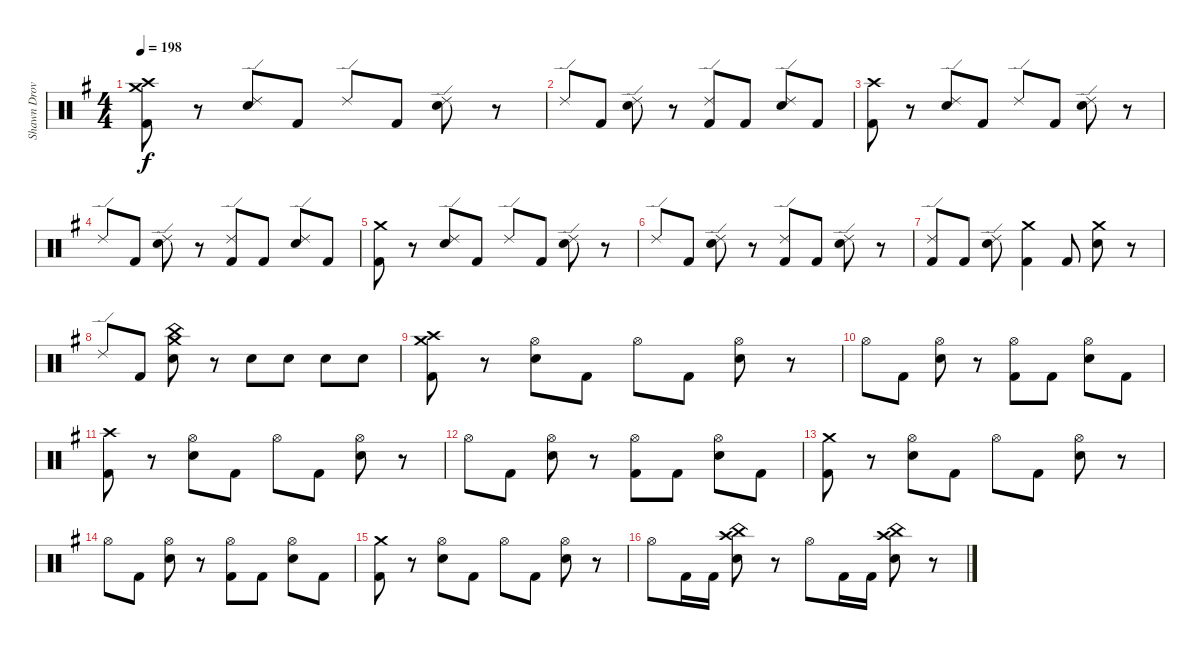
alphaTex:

\track ("Shawn Drover" "Shawn Drov") {instrument percussion}
\staff {score}
\articulation defaults
\ts (4 4)
\tempo 198
\clef neutral
\ks g
("Crash medium (hit)" "Crash high (hit)" "Kick (hit) 2").8{dy f} r.8 ("Ride (edge) 2" "Snare (hit) 2").8 "Kick (hit) 2".8 "Ride (edge) 2".8 "Kick (hit) 2".8 ("Ride (edge) 2" "Snare (hit) 2").8 r.8 |
"Ride (edge) 2".8 "Kick (hit) 2".8 ("Ride (edge) 2" "Snare (hit) 2").8 r.8 ("Ride (edge) 2" "Kick (hit) 2").8 "Kick (hit) 2".8 ("Ride (edge) 2" "Snare (hit) 2").8 "Kick (hit) 2".8 |
("Crash high (hit)" "Kick (hit) 2").8 r.8 ("Ride (edge) 2" "Snare (hit) 2").8 "Kick (hit) 2".8 "Ride (edge) 2".8 "Kick (hit) 2".8 ("Ride (edge) 2" "Snare (hit) 2").8 r.8 |
"Ride (edge) 2".8 "Kick (hit) 2".8 ("Ride (edge) 2" "Snare (hit) 2").8 r.8 ("Ride (edge) 2" "Kick (hit) 2").8 "Kick (hit) 2".8 ("Ride (edge) 2" "Snare (hit) 2").8 "Kick (hit) 2".8 |
("Crash medium (hit)" "Kick (hit) 2").8 r.8 ("Ride (edge) 2" "Snare (hit) 2").8 "Kick (hit) 2".8 "Ride (edge) 2".8 "Kick (hit) 2".8 ("Ride (edge) 2" "Snare (hit) 2").8 r.8 |
"Ride (edge) 2".8 "Kick (hit) 2".8 ("Ride (edge) 2" "Snare (hit) 2").8 r.8 ("Ride (edge) 2" "Kick (hit) 2").8 "Kick (hit) 2".8 ("Ride (edge) 2" "Snare (hit) 2").8 r.8 |
("Ride (edge) 2" "Kick (hit) 2").8 "Kick (hit) 2".8 ("Ride (edge) 2" "Snare (hit) 2").8 ("Crash medium (hit)" "Kick (hit) 2").4 "Kick (hit) 2".8 ("Crash medium (hit)" "Snare (hit) 2").8 r.8 |
"Ride (edge) 2".8 "Kick (hit) 2".8 ("Crash medium (hit)" "China (hit)" "Snare (hit) 2").8 r.8 "Snare (hit) 2".8 "Snare (hit) 2".8 "Snare (hit) 2".8 "Snare (hit) 2".8 |
("Crash medium (hit)" "Crash high (hit)" "Kick (hit) 2").8 r.8 ("Hi-Hat (open)" "Snare (hit) 2").8 "Kick (hit) 2".8 "Hi-Hat (open)".8 "Kick (hit) 2".8 ("Hi-Hat (open)" "Snare (hit) 2").8 r.8 |
"Hi-Hat (open)".8 "Kick (hit) 2".8 ("Hi-Hat (open)" "Snare (hit) 2").8 r.8 ("Hi-Hat (open)" "Kick (hit) 2").8 "Kick (hit) 2".8 ("Hi-Hat (open)" "Snare (hit) 2").8 "Kick (hit) 2".8 |
("Crash high (hit)" "Kick (hit) 2").8 r.8 ("Hi-Hat (open)" "Snare (hit) 2").8 "Kick (hit) 2".8 "Hi-Hat (open)".8 "Kick (hit) 2".8 ("Hi-Hat (open)" "Snare (hit) 2").8 r.8 |
"Hi-Hat (open)".8 "Kick (hit) 2".8 ("Hi-Hat (open)" "Snare (hit) 2").8 r.8 ("Hi-Hat (open)" "Kick (hit) 2").8 "Kick (hit) 2".8 ("Hi-Hat (open)" "Snare (hit) 2").8 "Kick (hit) 2".8 |
("Crash medium (hit)" "Kick (hit) 2").8 r.8 ("Hi-Hat (open)" "Snare (hit) 2").8 "Kick (hit) 2".8 "Hi-Hat (open)".8 "Kick (hit) 2".8 ("Hi-Hat (open)" "Snare (hit) 2").8 r.8 |
"Hi-Hat (open)".8 "Kick (hit) 2".8 ("Hi-Hat (open)" "Snare (hit) 2").8 r.8 ("Hi-Hat (open)" "Kick (hit) 2").8 "Kick (hit) 2".8 ("Hi-Hat (open)" "Snare (hit) 2").8 "Kick (hit) 2".8 |
("Crash medium (hit)" "Kick (hit) 2").8 r.8 ("Hi-Hat (open)" "Snare (hit) 2").8 "Kick (hit) 2".8 "Hi-Hat (open)".8 "Kick (hit) 2".8 ("Hi-Hat (open)" "Snare (hit) 2").8 r.8 |
"Hi-Hat (open)".8 "Kick (hit) 2".16 "Kick (hit) 2".16 ("China (hit)" "Crash high (hit)" "Snare (hit) 2").8 r.8 "Hi-Hat (open)".8 "Kick (hit) 2".16 "Kick (hit) 2".16 ("China (hit)" "Crash high (hit)" "Snare (hit) 2").8 r.8
